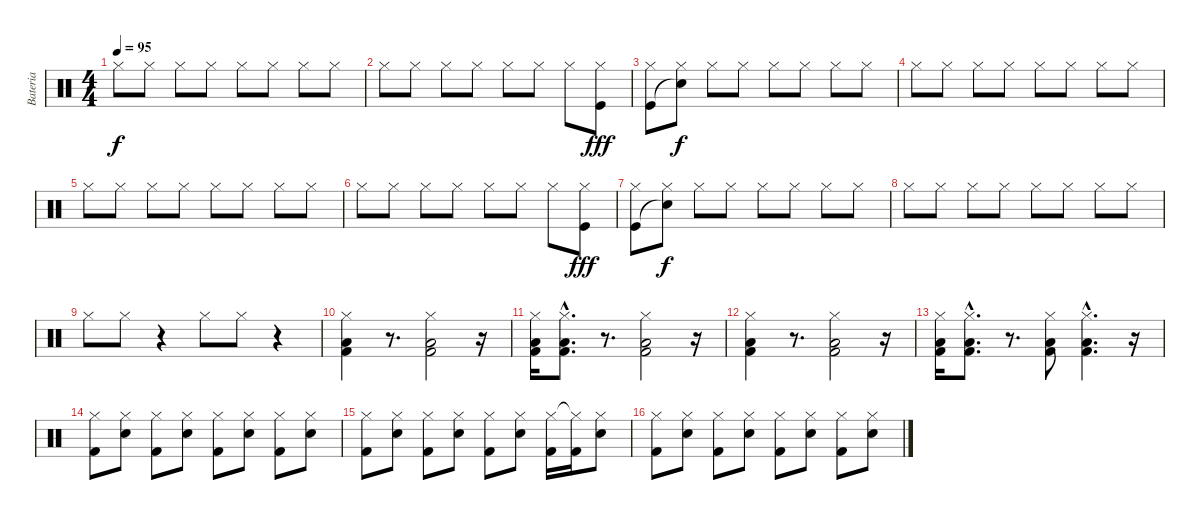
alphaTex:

\track ("Bateria" "Bateria") {instrument percussion}
\staff {score}
\articulation defaults
\ts (4 4)
\tempo 95
\clef neutral
\ks c "Hi-Hat (closed)".8{dy f} "Hi-Hat (closed)".8 "Hi-Hat (closed)".8 "Hi-Hat (closed)".8 "Hi-Hat (closed)".8 "Hi-Hat (closed)".8 "Hi-Hat (closed)".8 "Hi-Hat (closed)".8
|
"Hi-Hat (closed)".8 "Hi-Hat (closed)".8 "Hi-Hat (closed)".8 "Hi-Hat (closed)".8 "Hi-Hat (closed)".8 "Hi-Hat (closed)".8 "Hi-Hat (closed)".8 ("Hi-Hat (closed)" "Kick (hit)").8{dy fff} |
("Hi-Hat (closed)" "Kick (hit)").8 ("Hi-Hat (closed)" "Snare (hit)"{t}).8{dy f} "Hi-Hat (closed)".8 "Hi-Hat (closed)".8 "Hi-Hat (closed)".8 "Hi-Hat (closed)".8 "Hi-Hat (closed)".8 "Hi-Hat (closed)".8 |
"Hi-Hat (closed)".8 "Hi-Hat (closed)".8 "Hi-Hat (closed)".8 "Hi-Hat (closed)".8 "Hi-Hat (closed)".8 "Hi-Hat (closed)".8 "Hi-Hat (closed)".8 "Hi-Hat (closed)".8 |
"Hi-Hat (closed)".8 "Hi-Hat (closed)".8 "Hi-Hat (closed)".8 "Hi-Hat (closed)".8 "Hi-Hat (closed)".8 "Hi-Hat (closed)".8 "Hi-Hat (closed)".8 "Hi-Hat (closed)".8 |
"Hi-Hat (closed)".8 "Hi-Hat (closed)".8 "Hi-Hat (closed)".8 "Hi-Hat (closed)".8 "Hi-Hat (closed)".8 "Hi-Hat (closed)".8 "Hi-Hat (closed)".8 ("Hi-Hat (closed)" "Kick (hit)").8{dy fff} |
("Hi-Hat (closed)" "Kick (hit)").8 ("Hi-Hat (closed)" "Snare (hit)"{t}).8{dy f} "Hi-Hat (closed)".8 "Hi-Hat (closed)".8 "Hi-Hat (closed)".8 "Hi-Hat (closed)".8 "Hi-Hat (closed)".8 "Hi-Hat (closed)".8 |
"Hi-Hat (closed)".8 "Hi-Hat (closed)".8 "Hi-Hat (closed)".8 "Hi-Hat (closed)".8 "Hi-Hat (closed)".8 "Hi-Hat (closed)".8 "Hi-Hat (closed)".8 "Hi-Hat (closed)".8 |
"Hi-Hat (closed)".8 "Hi-Hat (closed)".8 r.4 "Hi-Hat (closed)".8 "Hi-Hat (closed)".8 r.4 |
("Low Tom (hit)" "Kick (hit) 2" "Hi-Hat (closed)").4 r.8{d} ("Low Tom (hit)" "Kick (hit) 2" "Hi-Hat (closed)").2 r.16 |
("Low Tom (hit)" "Kick (hit) 2" "Hi-Hat (closed)").16 ("Low Tom (hit)"{hac} "Kick (hit) 2"{hac} "Hi-Hat (closed)"{hac}).8{d} r.8{d} ("Kick (hit) 2" "Low Tom (hit)" "Hi-Hat (closed)").2 r.16 |
("Low Tom (hit)" "Kick (hit) 2" "Hi-Hat (closed)").4 r.8{d} ("Low Tom (hit)" "Kick (hit) 2" "Hi-Hat (closed)").2 r.16 |
("Low Tom (hit)" "Kick (hit) 2" "Hi-Hat (closed)").16 ("Low Tom (hit)"{hac} "Kick (hit) 2"{hac} "Hi-Hat (closed)"{hac}).8{d} r.8{d} ("Kick (hit) 2" "Low Tom (hit)" "Hi-Hat (closed)").8 ("Kick (hit) 2"{hac} "Low Tom (hit)"{hac} "Hi-Hat (closed)"{hac}).4{d} r.16 |
("Hi-Hat (closed)" "Kick (hit) 2").8 ("Hi-Hat (closed)" "Electric Snare (hit)").8 ("Hi-Hat (closed)" "Kick (hit) 2").8 ("Hi-Hat (closed)" "Electric Snare (hit)").8 ("Hi-Hat (closed)" "Kick (hit) 2").8 ("Hi-Hat (closed)" "Electric Snare (hit)").8 ("Hi-Hat (closed)" "Kick (hit) 2").8 ("Hi-Hat (closed)" "Electric Snare (hit)").8 |
("Hi-Hat (closed)" "Kick (hit) 2").8 ("Hi-Hat (closed)" "Electric Snare (hit)").8 ("Hi-Hat (closed)" "Kick (hit) 2").8 ("Hi-Hat (closed)" "Electric Snare (hit)").8 ("Hi-Hat (closed)" "Kick (hit) 2").8 ("Hi-Hat (closed)" "Electric Snare (hit)").8 ("Hi-Hat (closed)" "Kick (hit) 2").16 ("Hi-Hat (closed)"{t} "Kick (hit) 2").16 ("Hi-Hat (closed)" "Electric Snare (hit)").8 |
("Hi-Hat (closed)" "Kick (hit) 2").8 ("Hi-Hat (closed)" "Electric Snare (hit)").8 ("Hi-Hat (closed)" "Kick (hit) 2").8 ("Hi-Hat (closed)" "Electric Snare (hit)").8 ("Hi-Hat (closed)" "Kick (hit) 2").8 ("Hi-Hat (closed)" "Electric Snare (hit)").8 ("Hi-Hat (closed)" "Kick (hit) 2").8 ("Hi-Hat (closed)" "Electric Snare (hit)").8
